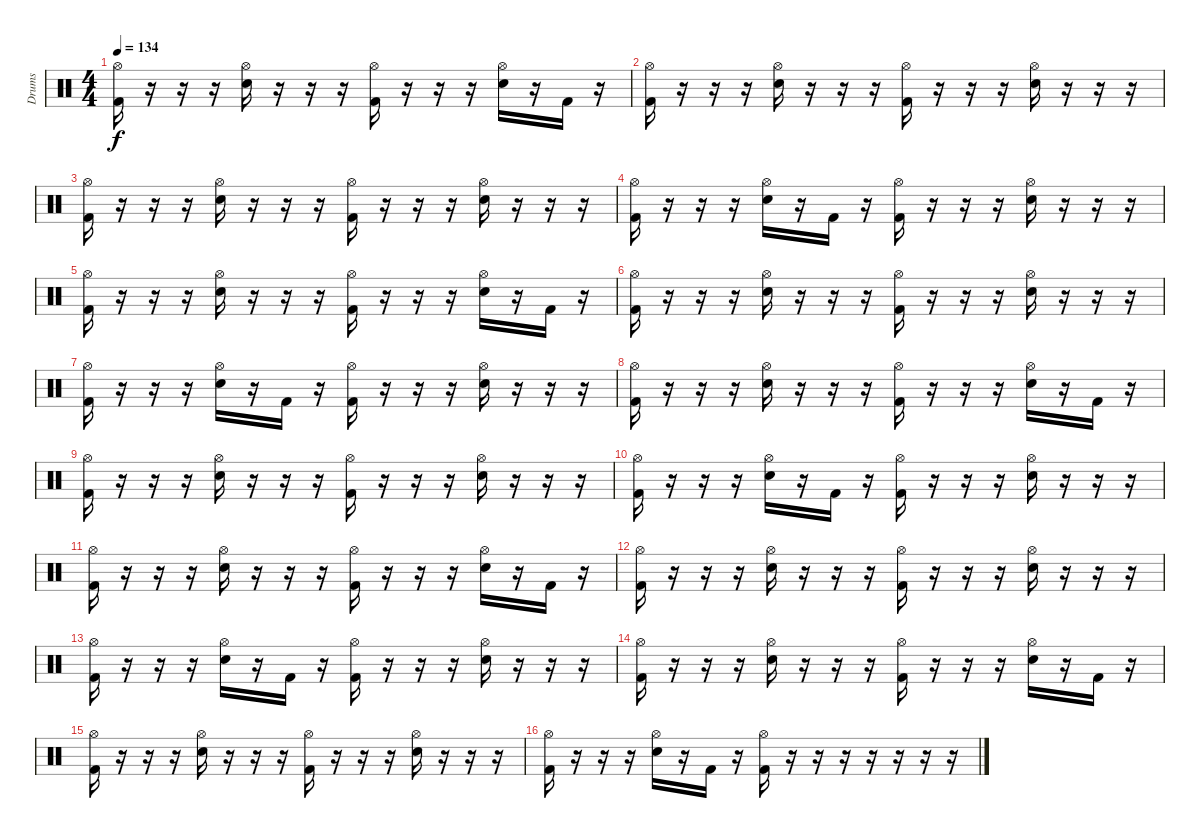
\track ("Drums" "Drums") {instrument percussion}
\staff {score}
\articulation defaults
\ts (4 4)
\tempo 134
\clef neutral
\ks c
("Kick (hit) 2" "Hi-Hat (open)").16{dy f} r.16 r.16 r.16 ("Snare (hit) 2" "Hi-Hat (open)").16 r.16 r.16 r.16 ("Kick (hit) 2" "Hi-Hat (open)").16 r.16 r.16 r.16 ("Snare (hit) 2" "Hi-Hat (open)").16 r.16 "Kick (hit) 2".16 r.16 |
("Kick (hit) 2" "Hi-Hat (open)").16 r.16 r.16 r.16 ("Snare (hit) 2" "Hi-Hat (open)").16 r.16 r.16 r.16 ("Kick (hit) 2" "Hi-Hat (open)").16 r.16 r.16 r.16 ("Snare (hit) 2" "Hi-Hat (open)").16 r.16 r.16 r.16 |
("Kick (hit) 2" "Hi-Hat (open)").16 r.16 r.16 r.16 ("Snare (hit) 2" "Hi-Hat (open)").16 r.16 r.16 r.16 ("Kick (hit) 2" "Hi-Hat (open)").16 r.16 r.16 r.16 ("Snare (hit) 2" "Hi-Hat (open)").16 r.16 r.16 r.16 |
("Kick (hit) 2" "Hi-Hat (open)").16 r.16 r.16 r.16 ("Snare (hit) 2" "Hi-Hat (open)").16 r.16 "Kick (hit) 2".16 r.16 ("Kick (hit) 2" "Hi-Hat (open)").16 r.16 r.16 r.16 ("Snare (hit) 2" "Hi-Hat (open)").16 r.16 r.16 r.16 |
("Kick (hit) 2" "Hi-Hat (open)").16 r.16 r.16 r.16 ("Snare (hit) 2" "Hi-Hat (open)").16 r.16 r.16 r.16 ("Kick (hit) 2" "Hi-Hat (open)").16 r.16 r.16 r.16 ("Snare (hit) 2" "Hi-Hat (open)").16 r.16 "Kick (hit) 2".16 r.16 |
("Kick (hit) 2" "Hi-Hat (open)").16 r.16 r.16 r.16 ("Snare (hit) 2" "Hi-Hat (open)").16 r.16 r.16 r.16 ("Kick (hit) 2" "Hi-Hat (open)").16 r.16 r.16 r.16 ("Snare (hit) 2" "Hi-Hat (open)").16 r.16 r.16 r.16 |
("Kick (hit) 2" "Hi-Hat (open)").16 r.16 r.16 r.16 ("Snare (hit) 2" "Hi-Hat (open)").16 r.16 "Kick (hit) 2".16 r.16 ("Kick (hit) 2" "Hi-Hat (open)").16 r.16 r.16 r.16 ("Snare (hit) 2" "Hi-Hat (open)").16 r.16 r.16 r.16 |
("Kick (hit) 2" "Hi-Hat (open)").16 r.16 r.16 r.16 ("Snare (hit) 2" "Hi-Hat (open)").16 r.16 r.16 r.16 ("Kick (hit) 2" "Hi-Hat (open)").16 r.16 r.16 r.16 ("Snare (hit) 2" "Hi-Hat (open)").16 r.16 "Kick (hit) 2".16 r.16 |
("Kick (hit) 2" "Hi-Hat (open)").16 r.16 r.16 r.16 ("Snare (hit) 2" "Hi-Hat (open)").16 r.16 r.16 r.16 ("Kick (hit) 2" "Hi-Hat (open)").16 r.16 r.16 r.16 ("Snare (hit) 2" "Hi-Hat (open)").16 r.16 r.16 r.16 |
("Kick (hit) 2" "Hi-Hat (open)").16 r.16 r.16 r.16 ("Snare (hit) 2" "Hi-Hat (open)").16 r.16 "Kick (hit) 2".16 r.16 ("Kick (hit) 2" "Hi-Hat (open)").16 r.16 r.16 r.16 ("Snare (hit) 2" "Hi-Hat (open)").16 r.16 r.16 r.16 |
("Kick (hit) 2" "Hi-Hat (open)").16 r.16 r.16 r.16 ("Snare (hit) 2" "Hi-Hat (open)").16 r.16 r.16 r.16 ("Kick (hit) 2" "Hi-Hat (open)").16 r.16 r.16 r.16 ("Snare (hit) 2" "Hi-Hat (open)").16 r.16 "Kick (hit) 2".16 r.16 |
("Kick (hit) 2" "Hi-Hat (open)").16 r.16 r.16 r.16 ("Snare (hit) 2" "Hi-Hat (open)").16 r.16 r.16 r.16 ("Kick (hit) 2" "Hi-Hat (open)").16 r.16 r.16 r.16 ("Snare (hit) 2" "Hi-Hat (open)").16 r.16 r.16 r.16 |
("Kick (hit) 2" "Hi-Hat (open)").16 r.16 r.16 r.16 ("Snare (hit) 2" "Hi-Hat (open)").16 r.16 "Kick (hit) 2".16 r.16 ("Kick (hit) 2" "Hi-Hat (open)").16 r.16 r.16 r.16 ("Snare (hit) 2" "Hi-Hat (open)").16 r.16 r.16 r.16 |
("Kick (hit) 2" "Hi-Hat (open)").16 r.16 r.16 r.16 ("Snare (hit) 2" "Hi-Hat (open)").16 r.16 r.16 r.16 ("Kick (hit) 2" "Hi-Hat (open)").16 r.16 r.16 r.16 ("Snare (hit) 2" "Hi-Hat (open)").16 r.16 "Kick (hit) 2".16 r.16 |
("Kick (hit) 2" "Hi-Hat (open)").16 r.16 r.16 r.16 ("Snare (hit) 2" "Hi-Hat (open)").16 r.16 r.16 r.16 ("Kick (hit) 2" "Hi-Hat (open)").16 r.16 r.16 r.16 ("Snare (hit) 2" "Hi-Hat (open)").16 r.16 r.16 r.16 |
("Kick (hit) 2" "Hi-Hat (open)").16 r.16 r.16 r.16 ("Snare (hit) 2" "Hi-Hat (open)").16 r.16 "Kick (hit) 2".16 r.16 ("Kick (hit) 2" "Hi-Hat (open)").16 r.16 r.16 r.16 r.16 r.16 r.16 r.16
